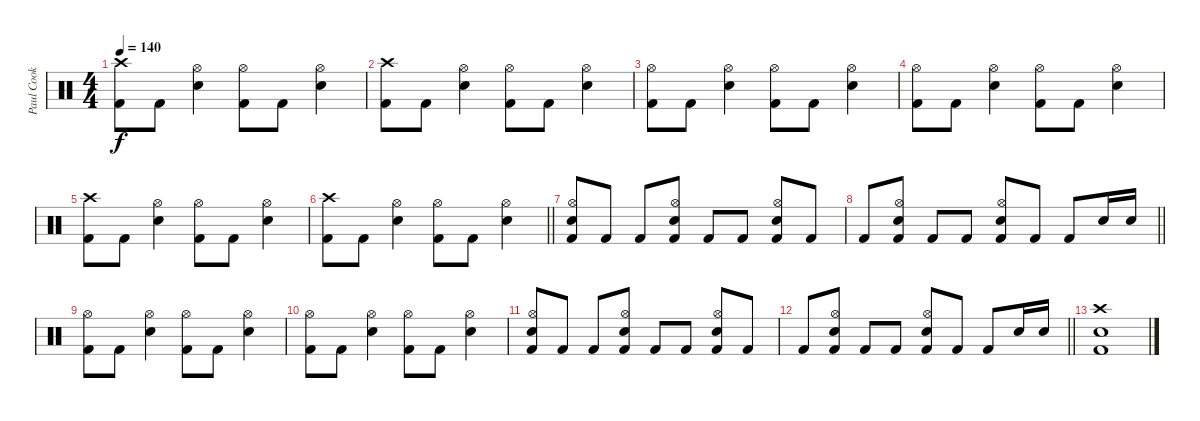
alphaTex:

\track ("Paul Cook" "Paul Cook") {instrument percussion}
\staff {score}
\articulation defaults
\ts (4 4)
\tempo 140
\clef neutral
\ks c
("Crash high (hit)" "Kick (hit) 2").8{dy f} "Kick (hit) 2".8 ("Hi-Hat (open)" "Electric Snare (hit)").4 ("Hi-Hat (open)" "Kick (hit) 2").8 "Kick (hit) 2".8 ("Hi-Hat (open)" "Electric Snare (hit)").4 |
("Crash high (hit)" "Kick (hit) 2").8 "Kick (hit) 2".8 ("Hi-Hat (open)" "Electric Snare (hit)").4 ("Hi-Hat (open)" "Kick (hit) 2").8 "Kick (hit) 2".8 ("Hi-Hat (open)" "Electric Snare (hit)").4 |
("Hi-Hat (open)" "Kick (hit) 2").8 "Kick (hit) 2".8 ("Hi-Hat (open)" "Electric Snare (hit)").4 ("Hi-Hat (open)" "Kick (hit) 2").8 "Kick (hit) 2".8 ("Hi-Hat (open)" "Electric Snare (hit)").4 |
("Hi-Hat (open)" "Kick (hit) 2").8 "Kick (hit) 2".8 ("Hi-Hat (open)" "Electric Snare (hit)").4 ("Hi-Hat (open)" "Kick (hit) 2").8 "Kick (hit) 2".8 ("Hi-Hat (open)" "Electric Snare (hit)").4 |
("Crash high (hit)" "Kick (hit) 2").8 "Kick (hit) 2".8 ("Hi-Hat (open)" "Electric Snare (hit)").4 ("Hi-Hat (open)" "Kick (hit) 2").8 "Kick (hit) 2".8 ("Hi-Hat (open)" "Electric Snare (hit)").4 |
\barLineRight lightlight
("Crash high (hit)" "Kick (hit) 2").8 "Kick (hit) 2".8 ("Hi-Hat (open)" "Electric Snare (hit)").4 ("Hi-Hat (open)" "Kick (hit) 2").8 "Kick (hit) 2".8 ("Hi-Hat (open)" "Electric Snare (hit)").4 |
("Hi-Hat (open)" "Electric Snare (hit)" "Kick (hit) 2").8 "Kick (hit) 2".8 "Kick (hit) 2".8 ("Hi-Hat (open)" "Electric Snare (hit)" "Kick (hit) 2").8 "Kick (hit) 2".8 "Kick (hit) 2".8 ("Hi-Hat (open)" "Electric Snare (hit)" "Kick (hit) 2").8 "Kick (hit) 2".8 |
\barLineRight lightlight "Kick (hit) 2".8
("Hi-Hat (open)" "Electric Snare (hit)" "Kick (hit) 2").8 "Kick (hit) 2".8 "Kick (hit) 2".8 ("Hi-Hat (open)" "Electric Snare (hit)" "Kick (hit) 2").8 "Kick (hit) 2".8 "Kick (hit) 2".8 "Electric Snare (hit)".16 "Electric Snare (hit)".16 |
("Hi-Hat (open)" "Kick (hit) 2").8 "Kick (hit) 2".8 ("Hi-Hat (open)" "Electric Snare (hit)").4 ("Hi-Hat (open)" "Kick (hit) 2").8 "Kick (hit) 2".8 ("Hi-Hat (open)" "Electric Snare (hit)").4 |
("Hi-Hat (open)" "Kick (hit) 2").8 "Kick (hit) 2".8 ("Hi-Hat (open)" "Electric Snare (hit)").4 ("Hi-Hat (open)" "Kick (hit) 2").8 "Kick (hit) 2".8 ("Hi-Hat (open)" "Electric Snare (hit)").4 |
("Hi-Hat (open)" "Electric Snare (hit)" "Kick (hit) 2").8 "Kick (hit) 2".8 "Kick (hit) 2".8 ("Hi-Hat (open)" "Electric Snare (hit)" "Kick (hit) 2").8 "Kick (hit) 2".8 "Kick (hit) 2".8 ("Hi-Hat (open)" "Electric Snare (hit)" "Kick (hit) 2").8 "Kick (hit) 2".8 |
\barLineRight lightlight "Kick (hit) 2".8
("Hi-Hat (open)" "Electric Snare (hit)" "Kick (hit) 2").8 "Kick (hit) 2".8 "Kick (hit) 2".8 ("Hi-Hat (open)" "Electric Snare (hit)" "Kick (hit) 2").8 "Kick (hit) 2".8 "Kick (hit) 2".8 "Electric Snare (hit)".16 "Electric Snare (hit)".16 |
("Crash high (hit)" "Electric Snare (hit)" "Kick (hit) 2").1
